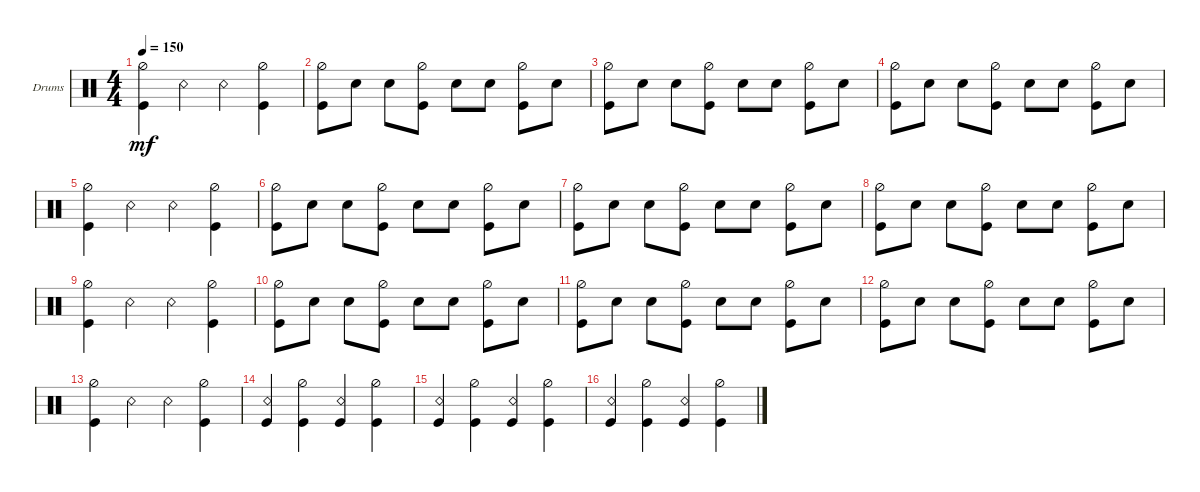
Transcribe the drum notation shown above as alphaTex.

\bracketExtendMode groupsimilarinstruments
\firstSystemTrackNameOrientation horizontal
\otherSystemsTrackNameOrientation horizontal
\track ("Drumkit" "Drums") {instrument percussion}
\staff {score}
\articulation defaults
\ts (4 4)
\tempo 150
\clef neutral
\ks c
("Hi-Hat (half)" "Kick (hit)").4{dy mf} "Snare (rim shot)".4 "Snare (rim shot)".4 ("Hi-Hat (half)" "Kick (hit)").4 |
("Hi-Hat (half)" "Kick (hit)").8 "Snare (hit) 2".8 "Snare (hit) 2".8 ("Hi-Hat (half)" "Kick (hit)").8 "Snare (hit) 2".8 "Snare (hit) 2".8 ("Hi-Hat (half)" "Kick (hit)").8 "Snare (hit) 2".8 |
("Hi-Hat (half)" "Kick (hit)").8 "Snare (hit) 2".8 "Snare (hit) 2".8 ("Hi-Hat (half)" "Kick (hit)").8 "Snare (hit) 2".8 "Snare (hit) 2".8 ("Hi-Hat (half)" "Kick (hit)").8 "Snare (hit) 2".8 |
("Hi-Hat (half)" "Kick (hit)").8 "Snare (hit) 2".8 "Snare (hit) 2".8 ("Hi-Hat (half)" "Kick (hit)").8 "Snare (hit) 2".8 "Snare (hit) 2".8 ("Hi-Hat (half)" "Kick (hit)").8 "Snare (hit) 2".8 |
("Hi-Hat (half)" "Kick (hit)").4 "Snare (rim shot)".4 "Snare (rim shot)".4 ("Hi-Hat (half)" "Kick (hit)").4 |
("Hi-Hat (half)" "Kick (hit)").8 "Snare (hit) 2".8 "Snare (hit) 2".8 ("Hi-Hat (half)" "Kick (hit)").8 "Snare (hit) 2".8 "Snare (hit) 2".8 ("Hi-Hat (half)" "Kick (hit)").8 "Snare (hit) 2".8 |
("Hi-Hat (half)" "Kick (hit)").8 "Snare (hit) 2".8 "Snare (hit) 2".8 ("Hi-Hat (half)" "Kick (hit)").8 "Snare (hit) 2".8 "Snare (hit) 2".8 ("Hi-Hat (half)" "Kick (hit)").8 "Snare (hit) 2".8 |
("Hi-Hat (half)" "Kick (hit)").8 "Snare (hit) 2".8 "Snare (hit) 2".8 ("Hi-Hat (half)" "Kick (hit)").8 "Snare (hit) 2".8 "Snare (hit) 2".8 ("Hi-Hat (half)" "Kick (hit)").8 "Snare (hit) 2".8 |
("Hi-Hat (half)" "Kick (hit)").4 "Snare (rim shot)".4 "Snare (rim shot)".4 ("Hi-Hat (half)" "Kick (hit)").4 |
("Hi-Hat (half)" "Kick (hit)").8 "Snare (hit) 2".8 "Snare (hit) 2".8 ("Hi-Hat (half)" "Kick (hit)").8 "Snare (hit) 2".8 "Snare (hit) 2".8 ("Hi-Hat (half)" "Kick (hit)").8 "Snare (hit) 2".8 |
("Hi-Hat (half)" "Kick (hit)").8 "Snare (hit) 2".8 "Snare (hit) 2".8 ("Hi-Hat (half)" "Kick (hit)").8 "Snare (hit) 2".8 "Snare (hit) 2".8 ("Hi-Hat (half)" "Kick (hit)").8 "Snare (hit) 2".8 |
("Hi-Hat (half)" "Kick (hit)").8 "Snare (hit) 2".8 "Snare (hit) 2".8 ("Hi-Hat (half)" "Kick (hit)").8 "Snare (hit) 2".8 "Snare (hit) 2".8 ("Hi-Hat (half)" "Kick (hit)").8 "Snare (hit) 2".8 |
("Hi-Hat (half)" "Kick (hit)").4 "Snare (rim shot)".4 "Snare (rim shot)".4 ("Hi-Hat (half)" "Kick (hit)").4 |
("Kick (hit)" "Snare (rim shot)").4 ("Kick (hit)" "Hi-Hat (half)").4 ("Kick (hit)" "Snare (rim shot)").4 ("Kick (hit)" "Hi-Hat (half)").4 |
("Kick (hit)" "Snare (rim shot)").4 ("Kick (hit)" "Hi-Hat (half)").4 ("Kick (hit)" "Snare (rim shot)").4 ("Kick (hit)" "Hi-Hat (half)").4 |
("Kick (hit)" "Snare (rim shot)").4 ("Kick (hit)" "Hi-Hat (half)").4 ("Kick (hit)" "Snare (rim shot)").4 ("Kick (hit)" "Hi-Hat (half)").4
